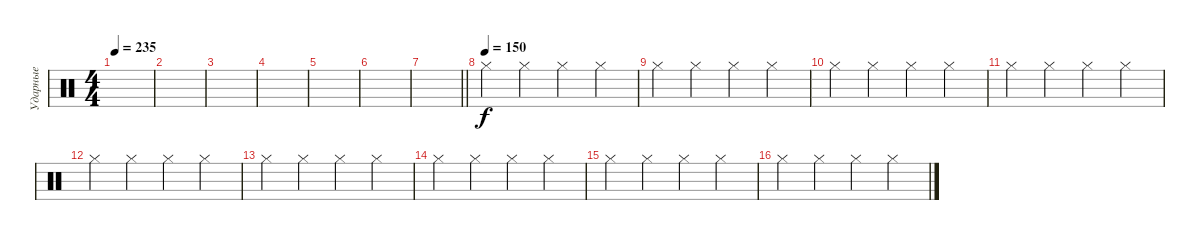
\track ("Ударные" "Ударные") {instrument percussion}
\staff {score}
\articulation defaults
\ts (4 4)
\tempo 235
\clef neutral
\ks c
|
|
|
|
|
|
\barLineRight lightlight
|
\tempo (150)
"Hi-Hat (closed)".4 "Hi-Hat (closed)".4 "Hi-Hat (closed)".4 "Hi-Hat (closed)".4 |
"Hi-Hat (closed)".4 "Hi-Hat (closed)".4 "Hi-Hat (closed)".4 "Hi-Hat (closed)".4 |
"Hi-Hat (closed)".4 "Hi-Hat (closed)".4 "Hi-Hat (closed)".4 "Hi-Hat (closed)".4 |
"Hi-Hat (closed)".4 "Hi-Hat (closed)".4 "Hi-Hat (closed)".4 "Hi-Hat (closed)".4 |
"Hi-Hat (closed)".4 "Hi-Hat (closed)".4 "Hi-Hat (closed)".4 "Hi-Hat (closed)".4 |
"Hi-Hat (closed)".4 "Hi-Hat (closed)".4 "Hi-Hat (closed)".4 "Hi-Hat (closed)".4 |
"Hi-Hat (closed)".4 "Hi-Hat (closed)".4 "Hi-Hat (closed)".4 "Hi-Hat (closed)".4 |
"Hi-Hat (closed)".4 "Hi-Hat (closed)".4 "Hi-Hat (closed)".4 "Hi-Hat (closed)".4 |
"Hi-Hat (closed)".4 "Hi-Hat (closed)".4 "Hi-Hat (closed)".4 "Hi-Hat (closed)".4
